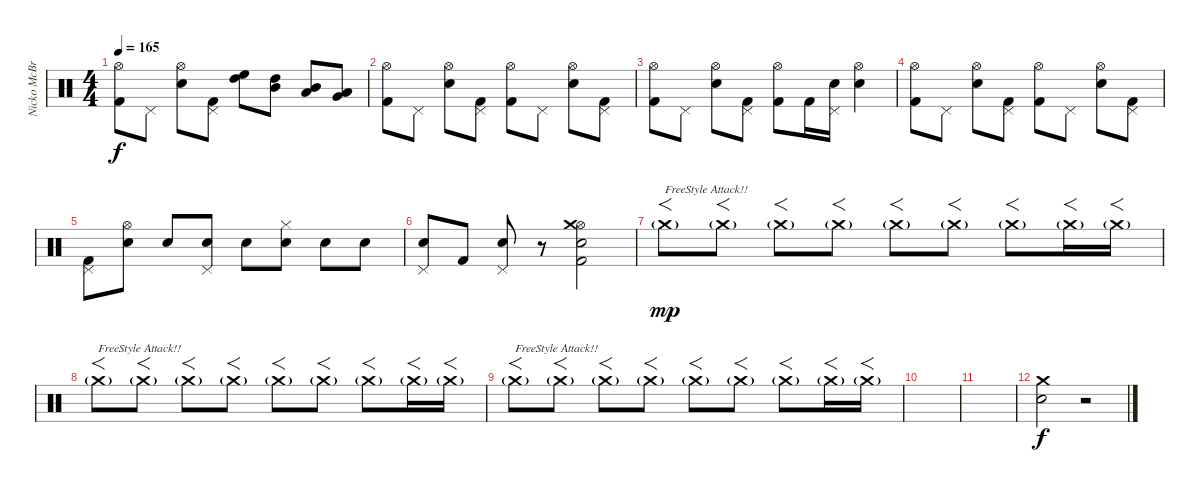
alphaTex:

\track ("Nicko McBrain" "Nicko McBr") {instrument percussion}
\staff {score}
\articulation defaults
\ts (4 4)
\tempo 165
\clef neutral
\ks c
("Kick (hit) 2" "Hi-Hat (open)").8{dy f} "Pedal Hi-Hat (hit)".8 ("Snare (hit) 2" "Hi-Hat (open)").8 ("Kick (hit) 2" "Pedal Hi-Hat (hit)").8 ("High Tom (hit)" "High Floor Tom (hit)").8 ("Mid Tom (hit)" "High Tom (hit)").8 ("Low Tom (hit)" "Mid Tom (hit)").8 ("Very Low Tom (hit)" "Low Tom (hit)").8 |
("Kick (hit) 2" "Hi-Hat (open)").8 "Pedal Hi-Hat (hit)".8 ("Snare (hit) 2" "Hi-Hat (open)").8 ("Kick (hit) 2" "Pedal Hi-Hat (hit)").8 ("Kick (hit) 2" "Hi-Hat (open)").8 "Pedal Hi-Hat (hit)".8 ("Snare (hit) 2" "Hi-Hat (open)").8 ("Kick (hit) 2" "Pedal Hi-Hat (hit)").8 |
("Kick (hit) 2" "Hi-Hat (open)").8 "Pedal Hi-Hat (hit)".8 ("Snare (hit) 2" "Hi-Hat (open)").8 ("Kick (hit) 2" "Pedal Hi-Hat (hit)").8 ("Kick (hit) 2" "Hi-Hat (open)").8 "Kick (hit) 2".16 ("Snare (hit) 2" "Pedal Hi-Hat (hit)").16 ("Snare (hit) 2" "Hi-Hat (open)").4 |
("Kick (hit) 2" "Hi-Hat (open)").8 "Pedal Hi-Hat (hit)".8 ("Snare (hit) 2" "Hi-Hat (open)").8 ("Kick (hit) 2" "Pedal Hi-Hat (hit)").8 ("Kick (hit) 2" "Hi-Hat (open)").8 "Pedal Hi-Hat (hit)".8 ("Snare (hit) 2" "Hi-Hat (open)").8 ("Kick (hit) 2" "Pedal Hi-Hat (hit)").8 |
("Kick (hit) 2" "Pedal Hi-Hat (hit)").8 ("Snare (hit) 2" "Hi-Hat (open)").8 "Snare (hit) 2".8 ("Snare (hit) 2" "Pedal Hi-Hat (hit)").8 "Snare (hit) 2".8 ("Snare (hit) 2" "Hi-Hat (closed)").8 "Snare (hit) 2".8 "Snare (hit) 2".8 |
("Snare (hit) 2" "Pedal Hi-Hat (hit)").8 "Kick (hit) 2".8 ("Snare (hit) 2" "Pedal Hi-Hat (hit)").8 r.8 ("Kick (hit) 2" "Snare (hit) 2" "Hi-Hat (open)" "Crash medium (hit)").2 |
"Crash medium (hit)"{g}.8{f txt "FreeStyle Attack!!" dy mp} "Crash medium (hit)"{g}.8{f} "Crash medium (hit)"{g}.8{f} "Crash medium (hit)"{g}.8{f} "Crash medium (hit)"{g}.8{f} "Crash medium (hit)"{g}.8{f} "Crash medium (hit)"{g}.8{f} "Crash medium (hit)"{g}.16{f} "Crash medium (hit)"{g}.16{f} |
"Crash medium (hit)"{g}.8{f txt "FreeStyle Attack!!"} "Crash medium (hit)"{g}.8{f} "Crash medium (hit)"{g}.8{f} "Crash medium (hit)"{g}.8{f} "Crash medium (hit)"{g}.8{f} "Crash medium (hit)"{g}.8{f} "Crash medium (hit)"{g}.8{f} "Crash medium (hit)"{g}.16{f} "Crash medium (hit)"{g}.16{f} |
"Crash medium (hit)"{g}.8{f txt "FreeStyle Attack!!"} "Crash medium (hit)"{g}.8{f} "Crash medium (hit)"{g}.8{f} "Crash medium (hit)"{g}.8{f} "Crash medium (hit)"{g}.8{f} "Crash medium (hit)"{g}.8{f} "Crash medium (hit)"{g}.8{f} "Crash medium (hit)"{g}.16{f} "Crash medium (hit)"{g}.16{f} |
|
|
("Snare (hit) 2" "Crash medium (hit)").2{dy f} r.2
